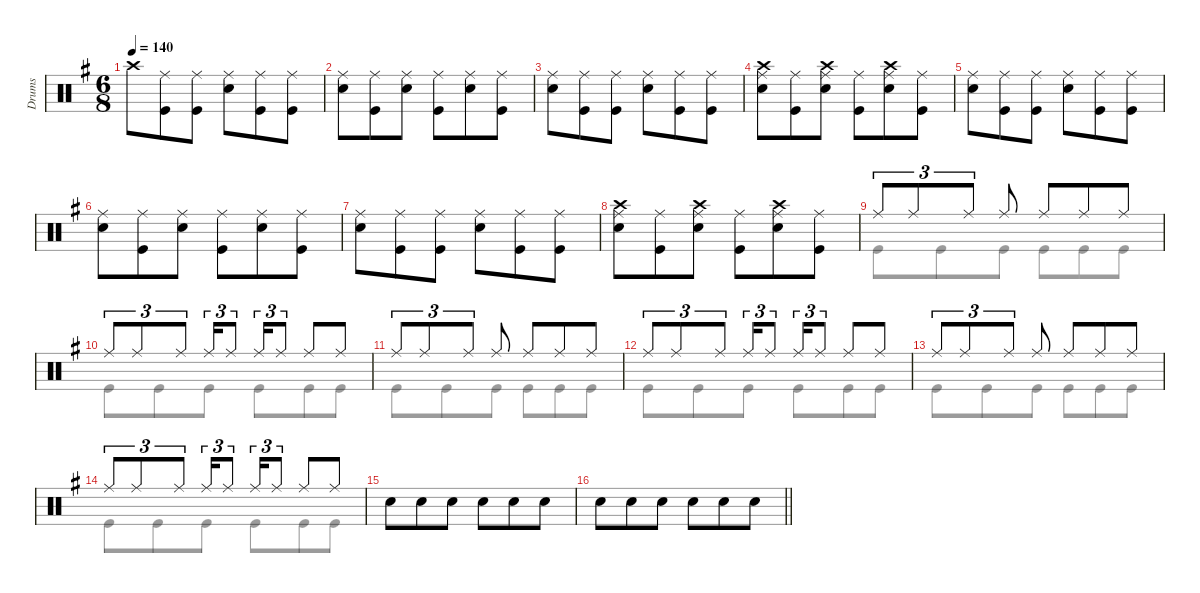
\defaultSystemsLayout 8
\hideDynamics
\bracketExtendMode groupsimilarinstruments
\firstSystemTrackNameMode fullname
\otherSystemsTrackNameOrientation horizontal
\track ("Drums" "drm.") {defaultSystemsLayout 4 instrument percussion}
\staff {score}
\articulation defaults
\voice
\ts (6 8)
\tempo 140
\clef neutral
\ks g "Crash high (hit)"{acc forcenatural}.8{dy ff beam Down}
("Ride (middle)"{acc forcenatural} "Kick (hit)"{acc forcenatural}).8{beam Down} ("Ride (middle)"{acc forcenatural} "Kick (hit)"{acc forcenatural}).8{beam Down} ("Ride (middle)"{acc forcenatural} "Snare (hit) 2"{acc forcenatural}).8{beam Down} ("Ride (middle)"{acc forcenatural} "Kick (hit)"{acc forcenatural}).8{beam Down} ("Ride (middle)"{acc forcenatural} "Kick (hit)"{acc forcenatural}).8{beam Down} |
("Ride (middle)"{acc forcenatural} "Snare (hit) 2"{acc forcenatural}).8{beam Down} ("Ride (middle)"{acc forcenatural} "Kick (hit)"{acc forcenatural}).8{beam Down} ("Ride (middle)"{acc forcenatural} "Snare (hit) 2"{acc forcenatural}).8{beam Down} ("Ride (middle)"{acc forcenatural} "Kick (hit)"{acc forcenatural}).8{beam Down} ("Ride (middle)"{acc forcenatural} "Snare (hit) 2"{acc forcenatural}).8{beam Down} ("Ride (middle)"{acc forcenatural} "Kick (hit)"{acc forcenatural}).8{beam Down} |
("Ride (middle)"{acc forcenatural} "Snare (hit) 2"{acc forcenatural}).8{beam Down} ("Ride (middle)"{acc forcenatural} "Kick (hit)"{acc forcenatural}).8{beam Down} ("Ride (middle)"{acc forcenatural} "Kick (hit)"{acc forcenatural}).8{beam Down} ("Ride (middle)"{acc forcenatural} "Snare (hit) 2"{acc forcenatural}).8{beam Down} ("Ride (middle)"{acc forcenatural} "Kick (hit)"{acc forcenatural}).8{beam Down} ("Ride (middle)"{acc forcenatural} "Kick (hit)"{acc forcenatural}).8{beam Down} |
("Crash high (hit)"{acc forcenatural} "Ride (middle)"{acc forcenatural} "Snare (hit) 2"{acc forcenatural}).8{beam Down} ("Ride (middle)"{acc forcenatural} "Kick (hit)"{acc forcenatural}).8{beam Down} ("Crash high (hit)"{acc forcenatural} "Ride (middle)"{acc forcenatural} "Snare (hit) 2"{acc forcenatural}).8{beam Down} ("Ride (middle)"{acc forcenatural} "Kick (hit)"{acc forcenatural}).8{beam Down} ("Crash high (hit)"{acc forcenatural} "Ride (middle)"{acc forcenatural} "Snare (hit) 2"{acc forcenatural}).8{beam Down} ("Ride (middle)"{acc forcenatural} "Kick (hit)"{acc forcenatural}).8{beam Down} |
("Ride (middle)"{acc forcenatural} "Snare (hit) 2"{acc forcenatural}).8{beam Down} ("Ride (middle)"{acc forcenatural} "Kick (hit)"{acc forcenatural}).8{beam Down} ("Ride (middle)"{acc forcenatural} "Kick (hit)"{acc forcenatural}).8{beam Down} ("Ride (middle)"{acc forcenatural} "Snare (hit) 2"{acc forcenatural}).8{beam Down} ("Ride (middle)"{acc forcenatural} "Kick (hit)"{acc forcenatural}).8{beam Down} ("Ride (middle)"{acc forcenatural} "Kick (hit)"{acc forcenatural}).8{beam Down} |
("Ride (middle)"{acc forcenatural} "Snare (hit) 2"{acc forcenatural}).8{beam Down} ("Ride (middle)"{acc forcenatural} "Kick (hit)"{acc forcenatural}).8{beam Down} ("Ride (middle)"{acc forcenatural} "Snare (hit) 2"{acc forcenatural}).8{beam Down} ("Ride (middle)"{acc forcenatural} "Kick (hit)"{acc forcenatural}).8{beam Down} ("Ride (middle)"{acc forcenatural} "Snare (hit) 2"{acc forcenatural}).8{beam Down} ("Ride (middle)"{acc forcenatural} "Kick (hit)"{acc forcenatural}).8{beam Down} |
("Ride (middle)"{acc forcenatural} "Snare (hit) 2"{acc forcenatural}).8{beam Down} ("Ride (middle)"{acc forcenatural} "Kick (hit)"{acc forcenatural}).8{beam Down} ("Ride (middle)"{acc forcenatural} "Kick (hit)"{acc forcenatural}).8{beam Down} ("Ride (middle)"{acc forcenatural} "Snare (hit) 2"{acc forcenatural}).8{beam Down} ("Ride (middle)"{acc forcenatural} "Kick (hit)"{acc forcenatural}).8{beam Down} ("Ride (middle)"{acc forcenatural} "Kick (hit)"{acc forcenatural}).8{beam Down} |
("Crash high (hit)"{acc forcenatural} "Ride (middle)"{acc forcenatural} "Snare (hit) 2"{acc forcenatural}).8{beam Down} ("Ride (middle)"{acc forcenatural} "Kick (hit)"{acc forcenatural}).8{beam Down} ("Crash high (hit)"{acc forcenatural} "Ride (middle)"{acc forcenatural} "Snare (hit) 2"{acc forcenatural}).8{beam Down} ("Ride (middle)"{acc forcenatural} "Kick (hit)"{acc forcenatural}).8{beam Down} ("Crash high (hit)"{acc forcenatural} "Ride (middle)"{acc forcenatural} "Snare (hit) 2"{acc forcenatural}).8{beam Down} ("Ride (middle)"{acc forcenatural} "Kick (hit)"{acc forcenatural}).8{beam Down} |
"Ride (middle)"{acc forcenatural}.8{tu (3 2) beam Up} "Ride (middle)"{acc forcenatural}.8{tu (3 2) beam Up} "Ride (middle)"{acc forcenatural}.8{tu (3 2) beam Up} "Ride (middle)"{acc forcenatural}.8{beam Up} "Ride (middle)"{acc forcenatural}.8{beam Up} "Ride (middle)"{acc forcenatural}.8{beam Up} "Ride (middle)"{acc forcenatural}.8{beam Up} |
"Ride (middle)"{acc forcenatural}.8{tu (3 2) beam Up} "Ride (middle)"{acc forcenatural}.8{tu (3 2) beam Up} "Ride (middle)"{acc forcenatural}.8{tu (3 2) beam Up} "Ride (middle)"{acc forcenatural}.16{tu (3 2) beam Up} "Ride (middle)"{acc forcenatural}.8{tu (3 2) beam Up} "Ride (middle)"{acc forcenatural}.16{tu (3 2) beam Up} "Ride (middle)"{acc forcenatural}.8{tu (3 2) dy f beam Up} "Ride (middle)"{acc forcenatural}.8{dy ff beam Up} "Ride (middle)"{acc forcenatural}.8{beam Up} |
"Ride (middle)"{acc forcenatural}.8{tu (3 2) beam Up} "Ride (middle)"{acc forcenatural}.8{tu (3 2) beam Up} "Ride (middle)"{acc forcenatural}.8{tu (3 2) beam Up} "Ride (middle)"{acc forcenatural}.8{beam Up} "Ride (middle)"{acc forcenatural}.8{beam Up} "Ride (middle)"{acc forcenatural}.8{beam Up} "Ride (middle)"{acc forcenatural}.8{beam Up} |
"Ride (middle)"{acc forcenatural}.8{tu (3 2) beam Up} "Ride (middle)"{acc forcenatural}.8{tu (3 2) beam Up} "Ride (middle)"{acc forcenatural}.8{tu (3 2) beam Up} "Ride (middle)"{acc forcenatural}.16{tu (3 2) beam Up} "Ride (middle)"{acc forcenatural}.8{tu (3 2) beam Up} "Ride (middle)"{acc forcenatural}.16{tu (3 2) beam Up} "Ride (middle)"{acc forcenatural}.8{tu (3 2) dy f beam Up} "Ride (middle)"{acc forcenatural}.8{dy ff beam Up} "Ride (middle)"{acc forcenatural}.8{beam Up} |
"Ride (middle)"{acc forcenatural}.8{tu (3 2) beam Up} "Ride (middle)"{acc forcenatural}.8{tu (3 2) beam Up} "Ride (middle)"{acc forcenatural}.8{tu (3 2) beam Up} "Ride (middle)"{acc forcenatural}.8{beam Up} "Ride (middle)"{acc forcenatural}.8{beam Up} "Ride (middle)"{acc forcenatural}.8{beam Up} "Ride (middle)"{acc forcenatural}.8{beam Up} |
"Ride (middle)"{acc forcenatural}.8{tu (3 2) beam Up} "Ride (middle)"{acc forcenatural}.8{tu (3 2) beam Up} "Ride (middle)"{acc forcenatural}.8{tu (3 2) beam Up} "Ride (middle)"{acc forcenatural}.16{tu (3 2) beam Up} "Ride (middle)"{acc forcenatural}.8{tu (3 2) beam Up} "Ride (middle)"{acc forcenatural}.16{tu (3 2) beam Up} "Ride (middle)"{acc forcenatural}.8{tu (3 2) dy f beam Up} "Ride (middle)"{acc forcenatural}.8{dy ff beam Up} "Ride (middle)"{acc forcenatural}.8{beam Up} |
"Snare (hit) 2"{acc forcenatural}.8{dy mp beam Down} "Snare (hit) 2"{acc forcenatural}.8{beam Down} "Snare (hit) 2"{acc forcenatural}.8{beam Down} "Snare (hit) 2"{acc forcenatural}.8{dy mf beam Down} "Snare (hit) 2"{acc forcenatural}.8{beam Down} "Snare (hit) 2"{acc forcenatural}.8{beam Down} |
\barLineRight lightlight "Snare (hit) 2"{acc forcenatural}.8{dy f beam Down} "Snare (hit) 2"{acc forcenatural}.8{beam Down} "Snare (hit) 2"{acc forcenatural}.8{beam Down} "Snare (hit) 2"{acc forcenatural}.8{dy ff beam Down} "Snare (hit) 2"{acc forcenatural}.8{beam Down} "Snare (hit) 2"{acc forcenatural}.8{beam Down}
\voice
\clef neutral
\ottava regular
\simile none
\ks g
|
|
|
|
|
|
|
|
"Kick (hit)"{acc forcenatural}.8{dy ff beam Down} "Kick (hit)"{acc forcenatural}.8{beam Down} "Kick (hit)"{acc forcenatural}.8{beam Down} "Kick (hit)"{acc forcenatural}.8{beam Down} "Kick (hit)"{acc forcenatural}.8{beam Down} "Kick (hit)"{acc forcenatural}.8{beam Down} |
"Kick (hit)"{acc forcenatural}.8{beam Down} "Kick (hit)"{acc forcenatural}.8{beam Down} "Kick (hit)"{acc forcenatural}.8{beam Down} "Kick (hit)"{acc forcenatural}.8{beam Down} "Kick (hit)"{acc forcenatural}.8{beam Down} "Kick (hit)"{acc forcenatural}.8{beam Down} |
"Kick (hit)"{acc forcenatural}.8{beam Down} "Kick (hit)"{acc forcenatural}.8{beam Down} "Kick (hit)"{acc forcenatural}.8{beam Down} "Kick (hit)"{acc forcenatural}.8{beam Down} "Kick (hit)"{acc forcenatural}.8{beam Down} "Kick (hit)"{acc forcenatural}.8{beam Down} |
"Kick (hit)"{acc forcenatural}.8{beam Down} "Kick (hit)"{acc forcenatural}.8{beam Down} "Kick (hit)"{acc forcenatural}.8{beam Down} "Kick (hit)"{acc forcenatural}.8{beam Down} "Kick (hit)"{acc forcenatural}.8{beam Down} "Kick (hit)"{acc forcenatural}.8{beam Down} |
"Kick (hit)"{acc forcenatural}.8{beam Down} "Kick (hit)"{acc forcenatural}.8{beam Down} "Kick (hit)"{acc forcenatural}.8{beam Down} "Kick (hit)"{acc forcenatural}.8{beam Down} "Kick (hit)"{acc forcenatural}.8{beam Down} "Kick (hit)"{acc forcenatural}.8{beam Down} |
"Kick (hit)"{acc forcenatural}.8{beam Down} "Kick (hit)"{acc forcenatural}.8{beam Down} "Kick (hit)"{acc forcenatural}.8{beam Down} "Kick (hit)"{acc forcenatural}.8{beam Down} "Kick (hit)"{acc forcenatural}.8{beam Down} "Kick (hit)"{acc forcenatural}.8{beam Down} |
|
\barLineRight lightlight
